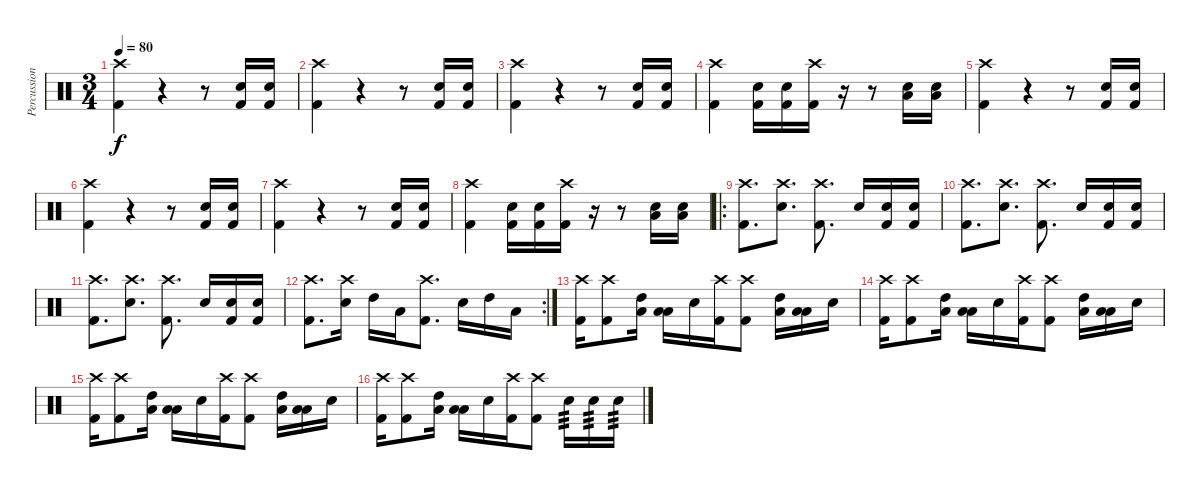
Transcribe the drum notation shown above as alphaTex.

\track ("Percussion" "Percussion") {instrument percussion}
\staff {score}
\articulation defaults
\ts (3 4)
\tempo 80
\clef neutral
\ks c
("Crash high (hit)" "Kick (hit) 2").4{dy f} r.4 r.8 ("Electric Snare (hit)" "Kick (hit) 2").16 ("Electric Snare (hit)" "Kick (hit) 2").16 |
("Crash high (hit)" "Kick (hit) 2").4 r.4 r.8 ("Electric Snare (hit)" "Kick (hit) 2").16 ("Electric Snare (hit)" "Kick (hit) 2").16 |
("Crash high (hit)" "Kick (hit) 2").4 r.4 r.8 ("Electric Snare (hit)" "Kick (hit) 2").16 ("Electric Snare (hit)" "Kick (hit) 2").16 |
("Crash high (hit)" "Kick (hit) 2").4 ("Electric Snare (hit)" "Kick (hit) 2").16 ("Electric Snare (hit)" "Kick (hit) 2").16 ("Crash high (hit)" "Kick (hit) 2").16 r.16 r.8 ("Low Floor Tom (hit)" "Electric Snare (hit)").16 ("Low Floor Tom (hit)" "Electric Snare (hit)").16 |
("Crash high (hit)" "Kick (hit) 2").4 r.4 r.8 ("Electric Snare (hit)" "Kick (hit) 2").16 ("Electric Snare (hit)" "Kick (hit) 2").16 |
("Crash high (hit)" "Kick (hit) 2").4 r.4 r.8 ("Electric Snare (hit)" "Kick (hit) 2").16 ("Electric Snare (hit)" "Kick (hit) 2").16 |
("Crash high (hit)" "Kick (hit) 2").4 r.4 r.8 ("Electric Snare (hit)" "Kick (hit) 2").16 ("Electric Snare (hit)" "Kick (hit) 2").16 |
("Crash high (hit)" "Kick (hit) 2").4 ("Electric Snare (hit)" "Kick (hit) 2").16 ("Electric Snare (hit)" "Kick (hit) 2").16 ("Crash high (hit)" "Kick (hit) 2").16 r.16 r.8 ("Low Floor Tom (hit)" "Electric Snare (hit)").16 ("Low Floor Tom (hit)" "Electric Snare (hit)").16 |
\ro
("Crash high (hit)" "Kick (hit) 2").8{d} ("Crash high (hit)" "Electric Snare (hit)").8{d} ("Crash high (hit)" "Kick (hit) 2").8{d} "Electric Snare (hit)".16 ("Electric Snare (hit)" "Kick (hit) 2").16 ("Electric Snare (hit)" "Kick (hit) 2").16 |
("Crash high (hit)" "Kick (hit) 2").8{d} ("Crash high (hit)" "Electric Snare (hit)").8{d} ("Crash high (hit)" "Kick (hit) 2").8{d} "Electric Snare (hit)".16 ("Electric Snare (hit)" "Kick (hit) 2").16 ("Electric Snare (hit)" "Kick (hit) 2").16 |
("Crash high (hit)" "Kick (hit) 2").8{d} ("Crash high (hit)" "Electric Snare (hit)").8{d} ("Crash high (hit)" "Kick (hit) 2").8{d} "Electric Snare (hit)".16 ("Electric Snare (hit)" "Kick (hit) 2").16 ("Electric Snare (hit)" "Kick (hit) 2").16 |
\rc 2
("Crash high (hit)" "Kick (hit) 2").8{d} ("Crash high (hit)" "Electric Snare (hit)").16 "High Tom (hit)".16 "Low Tom (hit)".16 ("Crash high (hit)" "Kick (hit) 2").8{d} "Electric Snare (hit)".16 "High Tom (hit)".16 "Low Floor Tom (hit)".16 |
("Crash high (hit)" "Kick (hit) 2").16 ("Crash high (hit)" "Kick (hit) 2").8 ("High Tom (hit)" "Low Tom (hit)").16 ("Low Tom (hit)" "Low Floor Tom (hit)").16 "Electric Snare (hit)".16 ("Crash high (hit)" "Kick (hit) 2").16 ("Crash high (hit)" "Kick (hit) 2").8 ("High Tom (hit)" "Low Tom (hit)").16 ("Low Tom (hit)" "Low Floor Tom (hit)").16 "Electric Snare (hit)".16 |
("Crash high (hit)" "Kick (hit) 2").16 ("Crash high (hit)" "Kick (hit) 2").8 ("High Tom (hit)" "Low Tom (hit)").16 ("Low Tom (hit)" "Low Floor Tom (hit)").16 "Electric Snare (hit)".16 ("Crash high (hit)" "Kick (hit) 2").16 ("Crash high (hit)" "Kick (hit) 2").8 ("High Tom (hit)" "Low Tom (hit)").16 ("Low Tom (hit)" "Low Floor Tom (hit)").16 "Electric Snare (hit)".16 |
("Crash high (hit)" "Kick (hit) 2").16 ("Crash high (hit)" "Kick (hit) 2").8 ("High Tom (hit)" "Low Tom (hit)").16 ("Low Tom (hit)" "Low Floor Tom (hit)").16 "Electric Snare (hit)".16 ("Crash high (hit)" "Kick (hit) 2").16 ("Crash high (hit)" "Kick (hit) 2").8 ("High Tom (hit)" "Low Tom (hit)").16 ("Low Tom (hit)" "Low Floor Tom (hit)").16 "Electric Snare (hit)".16 |
("Crash high (hit)" "Kick (hit) 2").16 ("Crash high (hit)" "Kick (hit) 2").8 ("High Tom (hit)" "Low Tom (hit)").16 ("Low Tom (hit)" "Low Floor Tom (hit)").16 "Electric Snare (hit)".16 ("Crash high (hit)" "Kick (hit) 2").16 ("Crash high (hit)" "Kick (hit) 2").8 "Electric Snare (hit)".16{tp 3} "Electric Snare (hit)".16{tp 3} "Electric Snare (hit)".16{tp 3}
